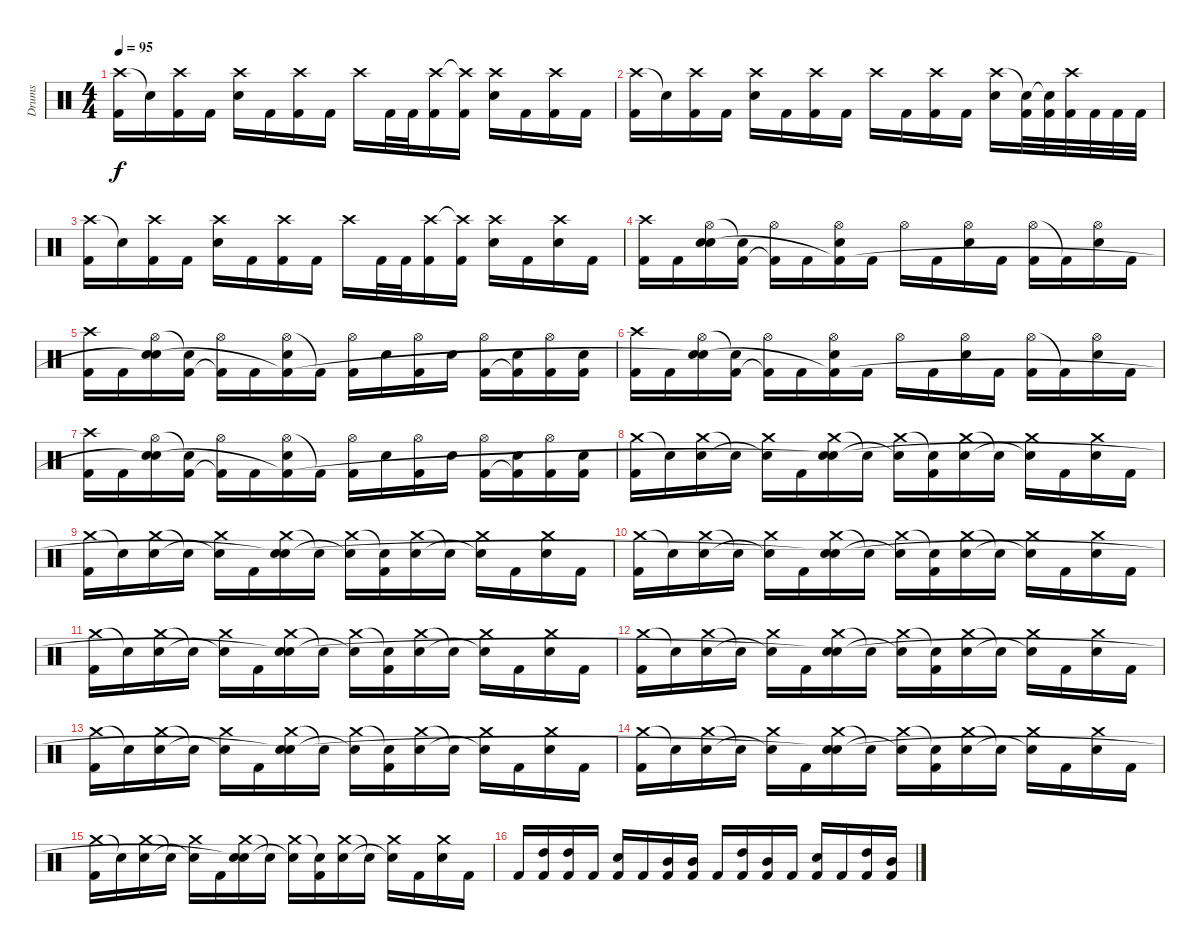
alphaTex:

\track ("Drums" "Drums") {instrument percussion}
\staff {score}
\articulation defaults
\ts (4 4)
\tempo 95
\clef neutral
\ks c
("Crash high (hit)" "Kick (hit) 2").16{dy f} "Snare (hit)"{t}.16 ("Crash high (hit)" "Kick (hit) 2").16 "Kick (hit) 2".16 ("Crash high (hit)" "Electric Snare (hit)").16 "Kick (hit) 2".16 ("Crash high (hit)" "Kick (hit) 2").16 "Kick (hit) 2".16 "Crash high (hit)".16 "Kick (hit) 2".32 "Kick (hit) 2".32 ("Crash high (hit)" "Kick (hit) 2").16 ("Crash high (hit)"{t} "Kick (hit) 2").16 ("Crash high (hit)" "Electric Snare (hit)").16 "Kick (hit) 2".16 ("Crash high (hit)" "Kick (hit) 2").16 "Kick (hit) 2".16 |
("Crash high (hit)" "Kick (hit) 2").16 "Snare (hit)"{t}.16 ("Crash high (hit)" "Kick (hit) 2").16 "Kick (hit) 2".16 ("Crash high (hit)" "Electric Snare (hit)").16 "Kick (hit) 2".16 ("Crash high (hit)" "Kick (hit) 2").16 "Kick (hit) 2".16 "Crash high (hit)".16 "Kick (hit) 2".16 ("Crash high (hit)" "Kick (hit) 2").16 "Kick (hit) 2".16 ("Crash high (hit)" "Electric Snare (hit)").16 ("Snare (hit)"{t} "Kick (hit) 2").32 ("Snare (hit)"{t} "Kick (hit) 2").32 ("Crash high (hit)" "Kick (hit) 2").32 "Kick (hit) 2".32 "Kick (hit) 2".32 "Kick (hit) 2".32 |
("Crash high (hit)" "Kick (hit) 2").16 "Snare (hit)"{t}.16 ("Crash high (hit)" "Kick (hit) 2").16 "Kick (hit) 2".16 ("Crash high (hit)" "Electric Snare (hit)").16 "Kick (hit) 2".16 ("Crash high (hit)" "Kick (hit) 2").16 "Kick (hit) 2".16 "Crash high (hit)".16 "Kick (hit) 2".32 "Kick (hit) 2".32 ("Crash high (hit)" "Kick (hit) 2").16 ("Crash high (hit)"{t} "Kick (hit) 2").16 ("Crash high (hit)" "Electric Snare (hit)").16 "Kick (hit) 2".16 ("Crash high (hit)" "Electric Snare (hit)").16 "Kick (hit) 2".16 |
("Crash high (hit)" "Kick (hit) 2").16 "Kick (hit) 2".16 ("Hi-Hat (open)" "Electric Snare (hit)" "Snare (hit)").16 ("Electric Snare (hit)"{t} "Kick (hit) 2").16 ("Hi-Hat (open)" "Kick (hit) 2"{t}).16 "Kick (hit) 2".16 ("Hi-Hat (open)" "Electric Snare (hit)" "Kick (hit) 2"{t}).16 "Kick (hit) 2".16 "Hi-Hat (open)".16 "Kick (hit) 2".16 ("Hi-Hat (open)" "Electric Snare (hit)").16 "Kick (hit) 2".16 ("Hi-Hat (open)" "Kick (hit) 2").16 "Kick (hit) 2"{t}.16 ("Hi-Hat (open)" "Electric Snare (hit)").16 "Kick (hit) 2".16 |
("Crash high (hit)" "Kick (hit) 2").16 "Kick (hit) 2".16 ("Hi-Hat (open)" "Electric Snare (hit)" "Snare (hit)"{t}).16 ("Electric Snare (hit)"{t} "Kick (hit) 2").16 ("Hi-Hat (open)" "Kick (hit) 2"{t}).16 "Kick (hit) 2".16 ("Hi-Hat (open)" "Electric Snare (hit)" "Kick (hit) 2"{t}).16 "Kick (hit) 2"{t}.16 ("Hi-Hat (open)" "Kick (hit) 2").16 "Electric Snare (hit)".16 ("Hi-Hat (open)" "Kick (hit) 2").16 "Electric Snare (hit)".16 ("Hi-Hat (open)" "Kick (hit) 2").16 ("Electric Snare (hit)" "Kick (hit) 2"{t}).16 ("Hi-Hat (open)" "Kick (hit) 2").16 ("Electric Snare (hit)" "Kick (hit) 2").16 |
("Crash high (hit)" "Kick (hit) 2").16 "Kick (hit) 2".16 ("Hi-Hat (open)" "Electric Snare (hit)" "Snare (hit)"{t}).16 ("Electric Snare (hit)"{t} "Kick (hit) 2").16 ("Hi-Hat (open)" "Kick (hit) 2"{t}).16 "Kick (hit) 2".16 ("Hi-Hat (open)" "Electric Snare (hit)" "Kick (hit) 2"{t}).16 "Kick (hit) 2".16 "Hi-Hat (open)".16 "Kick (hit) 2".16 ("Hi-Hat (open)" "Electric Snare (hit)").16 "Kick (hit) 2".16 ("Hi-Hat (open)" "Kick (hit) 2").16 "Kick (hit) 2"{t}.16 ("Hi-Hat (open)" "Electric Snare (hit)").16 "Kick (hit) 2".16 |
("Crash high (hit)" "Kick (hit) 2").16 "Kick (hit) 2".16 ("Hi-Hat (open)" "Electric Snare (hit)" "Snare (hit)"{t}).16 ("Electric Snare (hit)"{t} "Kick (hit) 2").16 ("Hi-Hat (open)" "Kick (hit) 2"{t}).16 "Kick (hit) 2".16 ("Hi-Hat (open)" "Electric Snare (hit)" "Kick (hit) 2"{t}).16 "Kick (hit) 2"{t}.16 ("Hi-Hat (open)" "Kick (hit) 2").16 "Electric Snare (hit)".16 ("Hi-Hat (open)" "Kick (hit) 2").16 "Electric Snare (hit)".16 ("Hi-Hat (open)" "Kick (hit) 2").16 ("Electric Snare (hit)" "Kick (hit) 2"{t}).16 ("Hi-Hat (open)" "Kick (hit) 2").16 ("Electric Snare (hit)" "Kick (hit) 2").16 |
("Crash medium (hit)" "Kick (hit) 2").16 "Snare (hit)"{t}.16 ("Crash medium (hit)" "Electric Snare (hit)").16 "Snare (hit)"{t}.16 ("Crash medium (hit)" "Snare (hit)"{t}).16 "Kick (hit) 2".16 ("Crash medium (hit)" "Electric Snare (hit)" "Snare (hit)"{t}).16 "Electric Snare (hit)"{t}.16 ("Crash medium (hit)" "Snare (hit)"{t}).16 ("Snare (hit)"{t} "Kick (hit) 2").16 ("Crash medium (hit)" "Electric Snare (hit)").16 "Electric Snare (hit)"{t}.16 ("Crash medium (hit)" "Snare (hit)"{t}).16 "Kick (hit) 2".16 ("Crash medium (hit)" "Electric Snare (hit)").16 "Kick (hit) 2".16 |
("Crash medium (hit)" "Kick (hit) 2").16 "Snare (hit)"{t}.16 ("Crash medium (hit)" "Electric Snare (hit)").16 "Snare (hit)"{t}.16 ("Crash medium (hit)" "Snare (hit)"{t}).16 "Kick (hit) 2".16 ("Crash medium (hit)" "Electric Snare (hit)" "Snare (hit)"{t}).16 "Electric Snare (hit)"{t}.16 ("Crash medium (hit)" "Snare (hit)"{t}).16 ("Snare (hit)"{t} "Kick (hit) 2").16 ("Crash medium (hit)" "Electric Snare (hit)").16 "Electric Snare (hit)"{t}.16 ("Crash medium (hit)" "Snare (hit)"{t}).16 "Kick (hit) 2".16 ("Crash medium (hit)" "Electric Snare (hit)").16 "Kick (hit) 2".16 |
("Crash medium (hit)" "Kick (hit) 2").16 "Snare (hit)"{t}.16 ("Crash medium (hit)" "Electric Snare (hit)").16 "Snare (hit)"{t}.16 ("Crash medium (hit)" "Snare (hit)"{t}).16 "Kick (hit) 2".16 ("Crash medium (hit)" "Electric Snare (hit)" "Snare (hit)"{t}).16 "Electric Snare (hit)"{t}.16 ("Crash medium (hit)" "Snare (hit)"{t}).16 ("Snare (hit)"{t} "Kick (hit) 2").16 ("Crash medium (hit)" "Electric Snare (hit)").16 "Electric Snare (hit)"{t}.16 ("Crash medium (hit)" "Snare (hit)"{t}).16 "Kick (hit) 2".16 ("Crash medium (hit)" "Electric Snare (hit)").16 "Kick (hit) 2".16 |
("Crash medium (hit)" "Kick (hit) 2").16 "Snare (hit)"{t}.16 ("Crash medium (hit)" "Electric Snare (hit)").16 "Snare (hit)"{t}.16 ("Crash medium (hit)" "Snare (hit)"{t}).16 "Kick (hit) 2".16 ("Crash medium (hit)" "Electric Snare (hit)" "Snare (hit)"{t}).16 "Electric Snare (hit)"{t}.16 ("Crash medium (hit)" "Snare (hit)"{t}).16 ("Snare (hit)"{t} "Kick (hit) 2").16 ("Crash medium (hit)" "Electric Snare (hit)").16 "Electric Snare (hit)"{t}.16 ("Crash medium (hit)" "Snare (hit)"{t}).16 "Kick (hit) 2".16 ("Crash medium (hit)" "Electric Snare (hit)").16 "Kick (hit) 2".16 |
("Crash medium (hit)" "Kick (hit) 2").16 "Snare (hit)"{t}.16 ("Crash medium (hit)" "Electric Snare (hit)").16 "Snare (hit)"{t}.16 ("Crash medium (hit)" "Snare (hit)"{t}).16 "Kick (hit) 2".16 ("Crash medium (hit)" "Electric Snare (hit)" "Snare (hit)"{t}).16 "Electric Snare (hit)"{t}.16 ("Crash medium (hit)" "Snare (hit)"{t}).16 ("Snare (hit)"{t} "Kick (hit) 2").16 ("Crash medium (hit)" "Electric Snare (hit)").16 "Electric Snare (hit)"{t}.16 ("Crash medium (hit)" "Snare (hit)"{t}).16 "Kick (hit) 2".16 ("Crash medium (hit)" "Electric Snare (hit)").16 "Kick (hit) 2".16 |
("Crash medium (hit)" "Kick (hit) 2").16 "Snare (hit)"{t}.16 ("Crash medium (hit)" "Electric Snare (hit)").16 "Snare (hit)"{t}.16 ("Crash medium (hit)" "Snare (hit)"{t}).16 "Kick (hit) 2".16 ("Crash medium (hit)" "Electric Snare (hit)" "Snare (hit)"{t}).16 "Electric Snare (hit)"{t}.16 ("Crash medium (hit)" "Snare (hit)"{t}).16 ("Snare (hit)"{t} "Kick (hit) 2").16 ("Crash medium (hit)" "Electric Snare (hit)").16 "Electric Snare (hit)"{t}.16 ("Crash medium (hit)" "Snare (hit)"{t}).16 "Kick (hit) 2".16 ("Crash medium (hit)" "Electric Snare (hit)").16 "Kick (hit) 2".16 |
("Crash medium (hit)" "Kick (hit) 2").16 "Snare (hit)"{t}.16 ("Crash medium (hit)" "Electric Snare (hit)").16 "Snare (hit)"{t}.16 ("Crash medium (hit)" "Snare (hit)"{t}).16 "Kick (hit) 2".16 ("Crash medium (hit)" "Electric Snare (hit)" "Snare (hit)"{t}).16 "Electric Snare (hit)"{t}.16 ("Crash medium (hit)" "Snare (hit)"{t}).16 ("Snare (hit)"{t} "Kick (hit) 2").16 ("Crash medium (hit)" "Electric Snare (hit)").16 "Electric Snare (hit)"{t}.16 ("Crash medium (hit)" "Snare (hit)"{t}).16 "Kick (hit) 2".16 ("Crash medium (hit)" "Electric Snare (hit)").16 "Kick (hit) 2".16 |
("Crash medium (hit)" "Kick (hit) 2").16 "Snare (hit)"{t}.16 ("Crash medium (hit)" "Electric Snare (hit)").16 "Snare (hit)"{t}.16 ("Crash medium (hit)" "Snare (hit)"{t}).16 "Kick (hit) 2".16 ("Crash medium (hit)" "Electric Snare (hit)" "Snare (hit)"{t}).16 "Electric Snare (hit)"{t}.16 ("Crash medium (hit)" "Snare (hit)"{t}).16 ("Snare (hit)"{t} "Kick (hit) 2").16 ("Crash medium (hit)" "Electric Snare (hit)").16 "Electric Snare (hit)"{t}.16 ("Crash medium (hit)" "Snare (hit)"{t}).16 "Kick (hit) 2".16 ("Crash medium (hit)" "Electric Snare (hit)").16 "Kick (hit) 2".16 |
"Kick (hit) 2".16 ("High Tom (hit)" "Kick (hit) 2").16 ("High Tom (hit)" "Kick (hit) 2").16 "Kick (hit) 2".16 ("Electric Snare (hit)" "Kick (hit) 2").16 "Kick (hit) 2".16 ("Mid Tom (hit)" "Kick (hit) 2").16 ("Mid Tom (hit)" "Kick (hit) 2").16 "Kick (hit) 2".16 ("High Tom (hit)" "Kick (hit) 2").16 ("Mid Tom (hit)" "Kick (hit) 2").16 "Kick (hit) 2".16 ("Electric Snare (hit)" "Kick (hit) 2").16 "Kick (hit) 2".16 ("High Tom (hit)" "Kick (hit) 2").16 ("Mid Tom (hit)" "Kick (hit) 2").16
